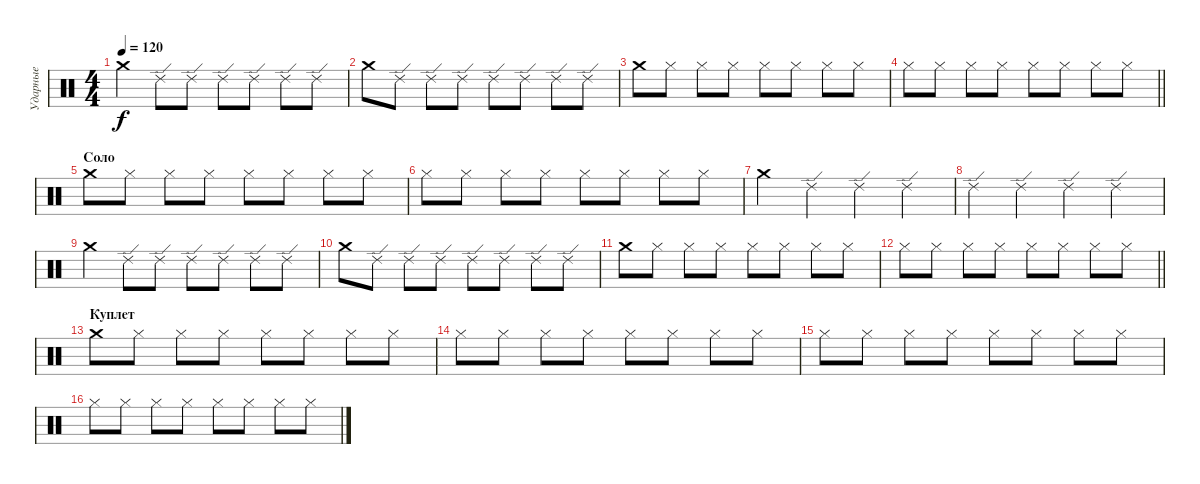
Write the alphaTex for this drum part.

\track ("Ударные" "Ударные") {instrument percussion}
\staff {score}
\articulation defaults
\ts (4 4)
\tempo 120
\clef neutral
\ks c "Crash medium (hit)".4{dy f} "Ride (edge) 2".8 "Ride (edge) 2".8 "Ride (edge) 2".8 "Ride (edge) 2".8 "Ride (edge) 2".8 "Ride (edge) 2".8
|
"Crash medium (hit)".8 "Ride (edge) 2".8 "Ride (edge) 2".8 "Ride (edge) 2".8 "Ride (edge) 2".8 "Ride (edge) 2".8 "Ride (edge) 2".8 "Ride (edge) 2".8 |
"Crash medium (hit)".8 "Hi-Hat (closed)".8 "Hi-Hat (closed)".8 "Hi-Hat (closed)".8 "Hi-Hat (closed)".8 "Hi-Hat (closed)".8 "Hi-Hat (closed)".8 "Hi-Hat (closed)".8 |
\barLineRight lightlight "Hi-Hat (closed)".8 "Hi-Hat (closed)".8 "Hi-Hat (closed)".8 "Hi-Hat (closed)".8 "Hi-Hat (closed)".8 "Hi-Hat (closed)".8 "Hi-Hat (closed)".8 "Hi-Hat (closed)".8
|
\section ("" "Соло")
"Crash medium (hit)".8 "Hi-Hat (closed)".8 "Hi-Hat (closed)".8 "Hi-Hat (closed)".8 "Hi-Hat (closed)".8 "Hi-Hat (closed)".8 "Hi-Hat (closed)".8 "Hi-Hat (closed)".8 |
"Hi-Hat (closed)".8 "Hi-Hat (closed)".8 "Hi-Hat (closed)".8 "Hi-Hat (closed)".8 "Hi-Hat (closed)".8 "Hi-Hat (closed)".8 "Hi-Hat (closed)".8 "Hi-Hat (closed)".8 |
"Crash medium (hit)".4 "Ride (edge) 2".4 "Ride (edge) 2".4 "Ride (edge) 2".4 |
"Ride (edge) 2".4 "Ride (edge) 2".4 "Ride (edge) 2".4 "Ride (edge) 2".4 |
"Crash medium (hit)".4 "Ride (edge) 2".8 "Ride (edge) 2".8 "Ride (edge) 2".8 "Ride (edge) 2".8 "Ride (edge) 2".8 "Ride (edge) 2".8 |
"Crash medium (hit)".8 "Ride (edge) 2".8 "Ride (edge) 2".8 "Ride (edge) 2".8 "Ride (edge) 2".8 "Ride (edge) 2".8 "Ride (edge) 2".8 "Ride (edge) 2".8 |
"Crash medium (hit)".8 "Hi-Hat (closed)".8 "Hi-Hat (closed)".8 "Hi-Hat (closed)".8 "Hi-Hat (closed)".8 "Hi-Hat (closed)".8 "Hi-Hat (closed)".8 "Hi-Hat (closed)".8 |
\barLineRight lightlight "Hi-Hat (closed)".8 "Hi-Hat (closed)".8 "Hi-Hat (closed)".8 "Hi-Hat (closed)".8 "Hi-Hat (closed)".8 "Hi-Hat (closed)".8 "Hi-Hat (closed)".8 "Hi-Hat (closed)".8
|
\section ("" "Куплет")
"Crash medium (hit)".8 "Hi-Hat (closed)".8 "Hi-Hat (closed)".8 "Hi-Hat (closed)".8 "Hi-Hat (closed)".8 "Hi-Hat (closed)".8 "Hi-Hat (closed)".8 "Hi-Hat (closed)".8 |
"Hi-Hat (closed)".8 "Hi-Hat (closed)".8 "Hi-Hat (closed)".8 "Hi-Hat (closed)".8 "Hi-Hat (closed)".8 "Hi-Hat (closed)".8 "Hi-Hat (closed)".8 "Hi-Hat (closed)".8 |
"Hi-Hat (closed)".8 "Hi-Hat (closed)".8 "Hi-Hat (closed)".8 "Hi-Hat (closed)".8 "Hi-Hat (closed)".8 "Hi-Hat (closed)".8 "Hi-Hat (closed)".8 "Hi-Hat (closed)".8 |
"Hi-Hat (closed)".8 "Hi-Hat (closed)".8 "Hi-Hat (closed)".8 "Hi-Hat (closed)".8 "Hi-Hat (closed)".8 "Hi-Hat (closed)".8 "Hi-Hat (closed)".8 "Hi-Hat (closed)".8
